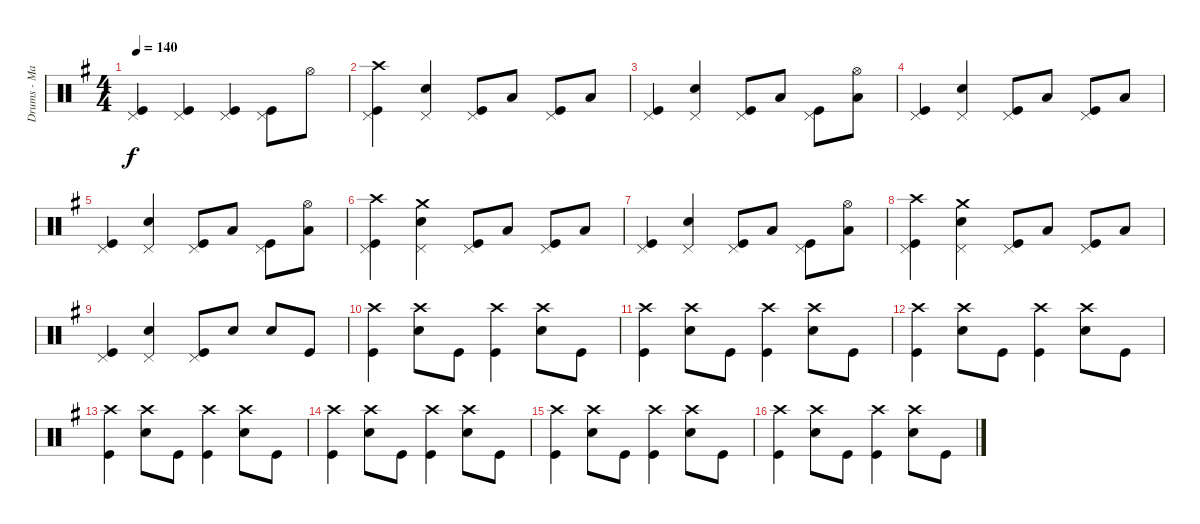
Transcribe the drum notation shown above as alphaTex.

\track ("Drums - Mark O'Connell" "Drums - Ma") {instrument percussion}
\staff {score}
\articulation defaults
\ts (4 4)
\tempo 140
\clef neutral
\ks g
("Pedal Hi-Hat (hit)" "Kick (hit)").4{dy f} ("Pedal Hi-Hat (hit)" "Kick (hit)").4 ("Pedal Hi-Hat (hit)" "Kick (hit)").4 ("Pedal Hi-Hat (hit)" "Kick (hit)").8 "Hi-Hat (open)".8 |
("Crash high (hit)" "Pedal Hi-Hat (hit)" "Kick (hit)").4 ("Pedal Hi-Hat (hit)" "Snare (hit) 2").4 ("Pedal Hi-Hat (hit)" "Kick (hit)").8 "Low Floor Tom (hit)".8 ("Pedal Hi-Hat (hit)" "Kick (hit)").8 "Low Floor Tom (hit)".8 |
("Pedal Hi-Hat (hit)" "Kick (hit)").4 ("Pedal Hi-Hat (hit)" "Snare (hit) 2").4 ("Pedal Hi-Hat (hit)" "Kick (hit)").8 "Low Floor Tom (hit)".8 ("Pedal Hi-Hat (hit)" "Kick (hit)").8 ("Hi-Hat (open)" "Low Floor Tom (hit)").8 |
("Pedal Hi-Hat (hit)" "Kick (hit)").4 ("Pedal Hi-Hat (hit)" "Snare (hit) 2").4 ("Pedal Hi-Hat (hit)" "Kick (hit)").8 "Low Floor Tom (hit)".8 ("Pedal Hi-Hat (hit)" "Kick (hit)").8 "Low Floor Tom (hit)".8 |
("Pedal Hi-Hat (hit)" "Kick (hit)").4 ("Pedal Hi-Hat (hit)" "Snare (hit) 2").4 ("Pedal Hi-Hat (hit)" "Kick (hit)").8 "Low Floor Tom (hit)".8 ("Pedal Hi-Hat (hit)" "Kick (hit)").8 ("Hi-Hat (open)" "Low Floor Tom (hit)").8 |
("Crash high (hit)" "Pedal Hi-Hat (hit)" "Kick (hit)").4{volume 12} ("Crash medium (hit)" "Pedal Hi-Hat (hit)" "Snare (hit) 2").4 ("Pedal Hi-Hat (hit)" "Kick (hit)").8 "Low Floor Tom (hit)".8 ("Pedal Hi-Hat (hit)" "Kick (hit)").8 "Low Floor Tom (hit)".8 |
("Pedal Hi-Hat (hit)" "Kick (hit)").4 ("Pedal Hi-Hat (hit)" "Snare (hit) 2").4 ("Pedal Hi-Hat (hit)" "Kick (hit)").8 "Low Floor Tom (hit)".8 ("Pedal Hi-Hat (hit)" "Kick (hit)").8 ("Hi-Hat (open)" "Low Floor Tom (hit)").8 |
("Crash high (hit)" "Pedal Hi-Hat (hit)" "Kick (hit)").4 ("Crash medium (hit)" "Pedal Hi-Hat (hit)" "Snare (hit) 2").4 ("Pedal Hi-Hat (hit)" "Kick (hit)").8 "Low Floor Tom (hit)".8 ("Pedal Hi-Hat (hit)" "Kick (hit)").8 "Low Floor Tom (hit)".8 |
("Pedal Hi-Hat (hit)" "Kick (hit)").4 ("Pedal Hi-Hat (hit)" "Snare (hit) 2").4 ("Pedal Hi-Hat (hit)" "Kick (hit)").8 "Snare (hit) 2".8 "Snare (hit) 2".8 "Kick (hit)".8 |
("Crash high (hit)" "Kick (hit)").4 ("Crash high (hit)" "Snare (hit) 2").8 "Kick (hit)".8 ("Crash high (hit)" "Kick (hit)").4 ("Crash high (hit)" "Snare (hit) 2").8 "Kick (hit)".8 |
("Crash high (hit)" "Kick (hit)").4 ("Crash high (hit)" "Snare (hit) 2").8 "Kick (hit)".8 ("Crash high (hit)" "Kick (hit)").4 ("Crash high (hit)" "Snare (hit) 2").8 "Kick (hit)".8 |
("Crash high (hit)" "Kick (hit)").4 ("Crash high (hit)" "Snare (hit) 2").8 "Kick (hit)".8 ("Crash high (hit)" "Kick (hit)").4 ("Crash high (hit)" "Snare (hit) 2").8 "Kick (hit)".8 |
("Crash high (hit)" "Kick (hit)").4 ("Crash high (hit)" "Snare (hit) 2").8 "Kick (hit)".8 ("Crash high (hit)" "Kick (hit)").4 ("Crash high (hit)" "Snare (hit) 2").8 "Kick (hit)".8 |
("Crash high (hit)" "Kick (hit)").4 ("Crash high (hit)" "Snare (hit) 2").8 "Kick (hit)".8 ("Crash high (hit)" "Kick (hit)").4 ("Crash high (hit)" "Snare (hit) 2").8 "Kick (hit)".8 |
("Crash high (hit)" "Kick (hit)").4 ("Crash high (hit)" "Snare (hit) 2").8 "Kick (hit)".8 ("Crash high (hit)" "Kick (hit)").4 ("Crash high (hit)" "Snare (hit) 2").8 "Kick (hit)".8 |
("Crash high (hit)" "Kick (hit)").4 ("Crash high (hit)" "Snare (hit) 2").8 "Kick (hit)".8 ("Crash high (hit)" "Kick (hit)").4 ("Crash high (hit)" "Snare (hit) 2").8 "Kick (hit)".8
